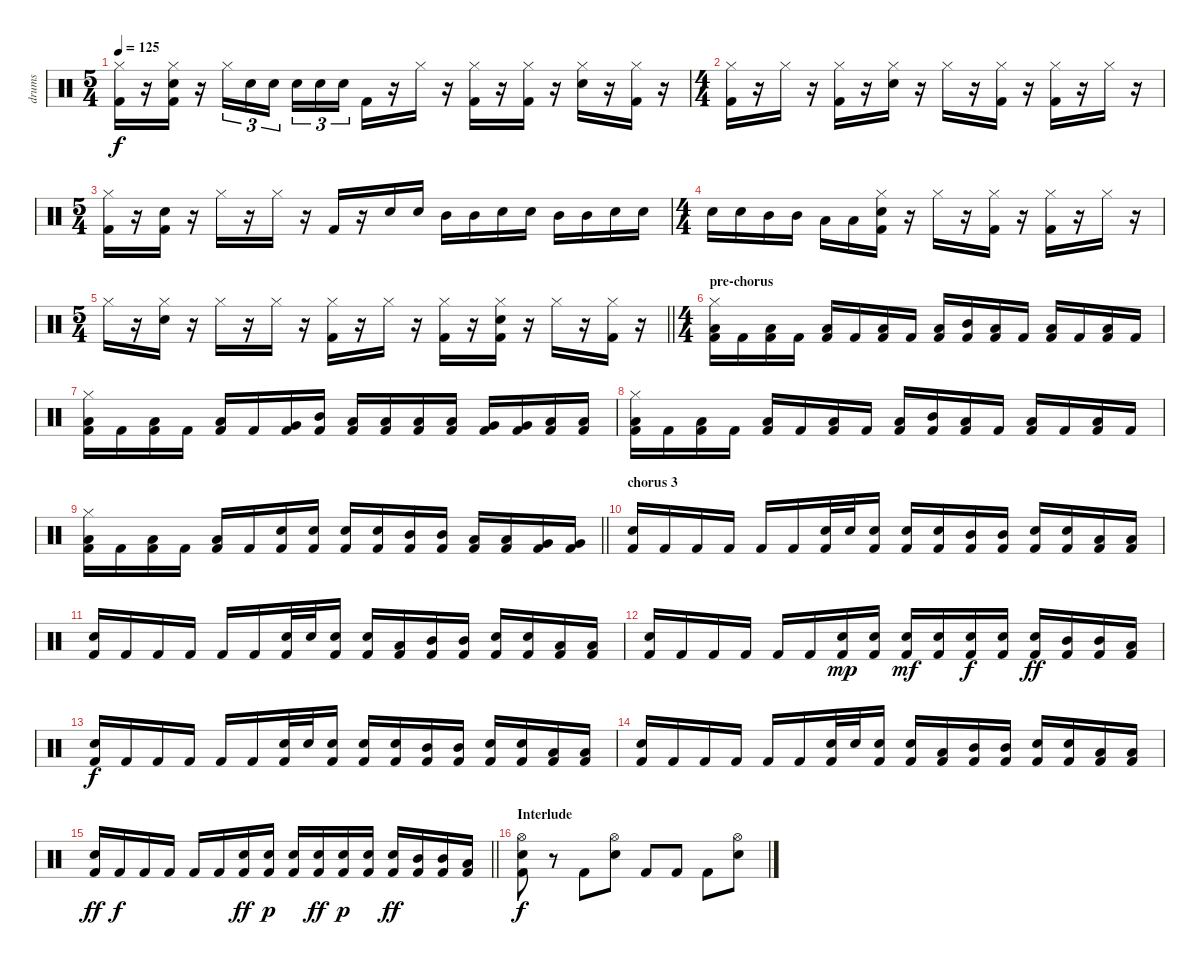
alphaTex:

\track ("drums" "drums") {instrument percussion}
\staff {score}
\articulation defaults
\ts (5 4)
\tempo 125
\clef neutral
\ks c
("Hi-Hat (closed)" "Kick (hit) 2").16{dy f} r.16 ("Electric Snare (hit)" "Hi-Hat (closed)" "Kick (hit) 2").16 r.16 "Hi-Hat (closed)".16{tu (3 2)} "Electric Snare (hit)".16{tu (3 2)} "Electric Snare (hit)".16{tu (3 2) beam splitsecondary} "Electric Snare (hit)".16{tu (3 2)} "Electric Snare (hit)".16{tu (3 2)} "Electric Snare (hit)".16{tu (3 2)} "Kick (hit) 2".16 r.16 "Hi-Hat (closed)".16 r.16 ("Hi-Hat (closed)" "Kick (hit) 2").16 r.16 ("Hi-Hat (closed)" "Kick (hit) 2").16 r.16 ("Electric Snare (hit)" "Hi-Hat (closed)").16 r.16 ("Hi-Hat (closed)" "Kick (hit) 2").16 r.16 |
\ts (4 4)
("Hi-Hat (closed)" "Kick (hit) 2").16 r.16 "Hi-Hat (closed)".16 r.16 ("Hi-Hat (closed)" "Kick (hit) 2").16 r.16 ("Electric Snare (hit)" "Hi-Hat (closed)").16 r.16 "Hi-Hat (closed)".16 r.16 ("Hi-Hat (closed)" "Kick (hit) 2").16 r.16 ("Hi-Hat (closed)" "Kick (hit) 2").16 r.16 "Hi-Hat (closed)".16 r.16 |
\ts (5 4)
("Hi-Hat (closed)" "Kick (hit) 2").16 r.16 ("Electric Snare (hit)" "Kick (hit) 2").16 r.16 "Hi-Hat (closed)".16 r.16 "Hi-Hat (closed)".16 r.16 "Kick (hit) 2".16 r.16 "Electric Snare (hit)".16 "Electric Snare (hit)".16 "Mid Tom (hit)".16 "Mid Tom (hit)".16 "Electric Snare (hit)".16 "Electric Snare (hit)".16 "Mid Tom (hit)".16 "Mid Tom (hit)".16 "Electric Snare (hit)".16 "Electric Snare (hit)".16 |
\ts (4 4)
"Electric Snare (hit)".16 "Electric Snare (hit)".16 "Mid Tom (hit)".16 "Mid Tom (hit)".16 "Low Tom (hit)".16 "Low Tom (hit)".16 ("Electric Snare (hit)" "Hi-Hat (closed)" "Kick (hit) 2").16 r.16 "Hi-Hat (closed)".16 r.16 ("Hi-Hat (closed)" "Kick (hit) 2").16 r.16 ("Hi-Hat (closed)" "Kick (hit) 2").16 r.16 "Hi-Hat (closed)".16 r.16 |
\ts (5 4)
\barLineRight lightlight "Hi-Hat (closed)".16
r.16 ("Electric Snare (hit)" "Hi-Hat (closed)").16 r.16 "Hi-Hat (closed)".16 r.16 "Hi-Hat (closed)".16 r.16 ("Hi-Hat (closed)" "Kick (hit) 2").16 r.16 "Hi-Hat (closed)".16 r.16 ("Hi-Hat (closed)" "Kick (hit) 2").16 r.16 ("Electric Snare (hit)" "Hi-Hat (closed)" "Kick (hit) 2").16 r.16 "Hi-Hat (closed)".16 r.16 ("Hi-Hat (closed)" "Kick (hit) 2").16 r.16 |
\ts (4 4)
\section ("" "pre-chorus")
("Hi-Hat (closed)" "Low Tom (hit)" "Kick (hit) 2").16 "Kick (hit) 2".16 ("Low Tom (hit)" "Kick (hit) 2").16 "Kick (hit) 2".16 ("Low Tom (hit)" "Kick (hit) 2").16 "Kick (hit) 2".16 ("Low Tom (hit)" "Kick (hit) 2").16 "Kick (hit) 2".16 ("Low Tom (hit)" "Kick (hit) 2").16 ("Mid Tom (hit)" "Kick (hit) 2").16 ("Low Tom (hit)" "Kick (hit) 2").16 "Kick (hit) 2".16 ("Low Tom (hit)" "Kick (hit) 2").16 "Kick (hit) 2".16 ("Low Tom (hit)" "Kick (hit) 2").16 "Kick (hit) 2".16 |
("Hi-Hat (closed)" "Low Tom (hit)" "Kick (hit) 2").16 "Kick (hit) 2".16 ("Low Tom (hit)" "Kick (hit) 2").16 "Kick (hit) 2".16 ("Low Tom (hit)" "Kick (hit) 2").16 "Kick (hit) 2".16 ("Very Low Tom (hit)" "Kick (hit) 2").16 ("Mid Tom (hit)" "Kick (hit) 2").16 ("Low Tom (hit)" "Kick (hit) 2").16 ("Low Tom (hit)" "Kick (hit) 2").16 ("Low Tom (hit)" "Kick (hit) 2").16 ("Low Tom (hit)" "Kick (hit) 2").16 ("Very Low Tom (hit)" "Kick (hit) 2").16 ("Very Low Tom (hit)" "Kick (hit) 2").16 ("Low Floor Tom (hit)" "Kick (hit) 2").16 ("Low Floor Tom (hit)" "Kick (hit) 2").16 |
("Hi-Hat (closed)" "Low Tom (hit)" "Kick (hit) 2").16 "Kick (hit) 2".16 ("Low Tom (hit)" "Kick (hit) 2").16 "Kick (hit) 2".16 ("Low Tom (hit)" "Kick (hit) 2").16 "Kick (hit) 2".16 ("Low Tom (hit)" "Kick (hit) 2").16 "Kick (hit) 2".16 ("Low Tom (hit)" "Kick (hit) 2").16 ("Mid Tom (hit)" "Kick (hit) 2").16 ("Low Tom (hit)" "Kick (hit) 2").16 "Kick (hit) 2".16 ("Low Tom (hit)" "Kick (hit) 2").16 "Kick (hit) 2".16 ("Low Tom (hit)" "Kick (hit) 2").16 "Kick (hit) 2".16 |
\barLineRight lightlight
("Hi-Hat (closed)" "Low Tom (hit)" "Kick (hit) 2").16 "Kick (hit) 2".16 ("Low Tom (hit)" "Kick (hit) 2").16 "Kick (hit) 2".16 ("Low Tom (hit)" "Kick (hit) 2").16 "Kick (hit) 2".16 ("Electric Snare (hit)" "Kick (hit) 2").16 ("Electric Snare (hit)" "Kick (hit) 2").16 ("Electric Snare (hit)" "Kick (hit) 2").16 ("Electric Snare (hit)" "Kick (hit) 2").16 ("Mid Tom (hit)" "Kick (hit) 2").16 ("Mid Tom (hit)" "Kick (hit) 2").16 ("Low Tom (hit)" "Kick (hit) 2").16 ("Low Tom (hit)" "Kick (hit) 2").16 ("Very Low Tom (hit)" "Kick (hit) 2").16 ("Very Low Tom (hit)" "Kick (hit) 2").16 |
\section ("" "chorus 3")
("Electric Snare (hit)" "Kick (hit) 2").16 "Kick (hit) 2".16 "Kick (hit) 2".16 "Kick (hit) 2".16 "Kick (hit) 2".16 "Kick (hit) 2".16 ("Electric Snare (hit)" "Kick (hit) 2").32 "Electric Snare (hit)".32 ("Electric Snare (hit)" "Kick (hit) 2").16 ("Electric Snare (hit)" "Kick (hit) 2").16 ("Electric Snare (hit)" "Kick (hit) 2").16 ("Mid Tom (hit)" "Kick (hit) 2").16 ("Mid Tom (hit)" "Kick (hit) 2").16 ("Electric Snare (hit)" "Kick (hit) 2").16 ("Electric Snare (hit)" "Kick (hit) 2").16 ("Low Tom (hit)" "Kick (hit) 2").16 ("Low Tom (hit)" "Kick (hit) 2").16 |
("Electric Snare (hit)" "Kick (hit) 2").16 "Kick (hit) 2".16 "Kick (hit) 2".16 "Kick (hit) 2".16 "Kick (hit) 2".16 "Kick (hit) 2".16 ("Electric Snare (hit)" "Kick (hit) 2").32 "Electric Snare (hit)".32 ("Electric Snare (hit)" "Kick (hit) 2").16 ("Electric Snare (hit)" "Kick (hit) 2").16 ("Low Tom (hit)" "Kick (hit) 2").16 ("Mid Tom (hit)" "Kick (hit) 2").16 ("Mid Tom (hit)" "Kick (hit) 2").16 ("Electric Snare (hit)" "Kick (hit) 2").16 ("Electric Snare (hit)" "Kick (hit) 2").16 ("Low Tom (hit)" "Kick (hit) 2").16 ("Low Tom (hit)" "Kick (hit) 2").16 |
("Electric Snare (hit)" "Kick (hit) 2").16 "Kick (hit) 2".16 "Kick (hit) 2".16 "Kick (hit) 2".16 "Kick (hit) 2".16 "Kick (hit) 2".16 ("Electric Snare (hit)" "Kick (hit) 2").16{dy mp} ("Electric Snare (hit)" "Kick (hit) 2").16 ("Electric Snare (hit)" "Kick (hit) 2").16{dy mf} ("Electric Snare (hit)" "Kick (hit) 2").16 ("Electric Snare (hit)" "Kick (hit) 2").16{dy f} ("Electric Snare (hit)" "Kick (hit) 2").16 ("Electric Snare (hit)" "Kick (hit) 2").16{dy ff} ("Mid Tom (hit)" "Kick (hit) 2").16 ("Mid Tom (hit)" "Kick (hit) 2").16 ("Low Tom (hit)" "Kick (hit) 2").16 |
("Electric Snare (hit)" "Kick (hit) 2").16{dy f} "Kick (hit) 2".16 "Kick (hit) 2".16 "Kick (hit) 2".16 "Kick (hit) 2".16 "Kick (hit) 2".16 ("Electric Snare (hit)" "Kick (hit) 2").32 "Electric Snare (hit)".32 ("Electric Snare (hit)" "Kick (hit) 2").16 ("Electric Snare (hit)" "Kick (hit) 2").16 ("Electric Snare (hit)" "Kick (hit) 2").16 ("Mid Tom (hit)" "Kick (hit) 2").16 ("Mid Tom (hit)" "Kick (hit) 2").16 ("Electric Snare (hit)" "Kick (hit) 2").16 ("Electric Snare (hit)" "Kick (hit) 2").16 ("Low Tom (hit)" "Kick (hit) 2").16 ("Low Tom (hit)" "Kick (hit) 2").16 |
("Electric Snare (hit)" "Kick (hit) 2").16 "Kick (hit) 2".16 "Kick (hit) 2".16 "Kick (hit) 2".16 "Kick (hit) 2".16 "Kick (hit) 2".16 ("Electric Snare (hit)" "Kick (hit) 2").32 "Electric Snare (hit)".32 ("Electric Snare (hit)" "Kick (hit) 2").16 ("Electric Snare (hit)" "Kick (hit) 2").16 ("Low Tom (hit)" "Kick (hit) 2").16 ("Mid Tom (hit)" "Kick (hit) 2").16 ("Mid Tom (hit)" "Kick (hit) 2").16 ("Electric Snare (hit)" "Kick (hit) 2").16 ("Electric Snare (hit)" "Kick (hit) 2").16 ("Low Tom (hit)" "Kick (hit) 2").16 ("Low Tom (hit)" "Kick (hit) 2").16 |
\barLineRight lightlight
("Electric Snare (hit)" "Kick (hit) 2").16{dy ff} "Kick (hit) 2".16{dy f} "Kick (hit) 2".16 "Kick (hit) 2".16 "Kick (hit) 2".16 "Kick (hit) 2".16 ("Electric Snare (hit)" "Kick (hit) 2").16{dy ff} ("Electric Snare (hit)" "Kick (hit) 2").16{dy p} ("Electric Snare (hit)" "Kick (hit) 2").16 ("Electric Snare (hit)" "Kick (hit) 2").16{dy ff} ("Electric Snare (hit)" "Kick (hit) 2").16{dy p} ("Electric Snare (hit)" "Kick (hit) 2").16 ("Electric Snare (hit)" "Kick (hit) 2").16{dy ff} ("Mid Tom (hit)" "Kick (hit) 2").16 ("Mid Tom (hit)" "Kick (hit) 2").16 ("Low Tom (hit)" "Kick (hit) 2").16 |
\section ("" "Interlude ")
("Electric Snare (hit)" "Hi-Hat (open)" "Kick (hit) 2").8{dy f} r.8 "Kick (hit) 2".8 ("Electric Snare (hit)" "Hi-Hat (open)").8 "Kick (hit) 2".8 "Kick (hit) 2".8 "Kick (hit) 2".8 ("Electric Snare (hit)" "Hi-Hat (open)").8
